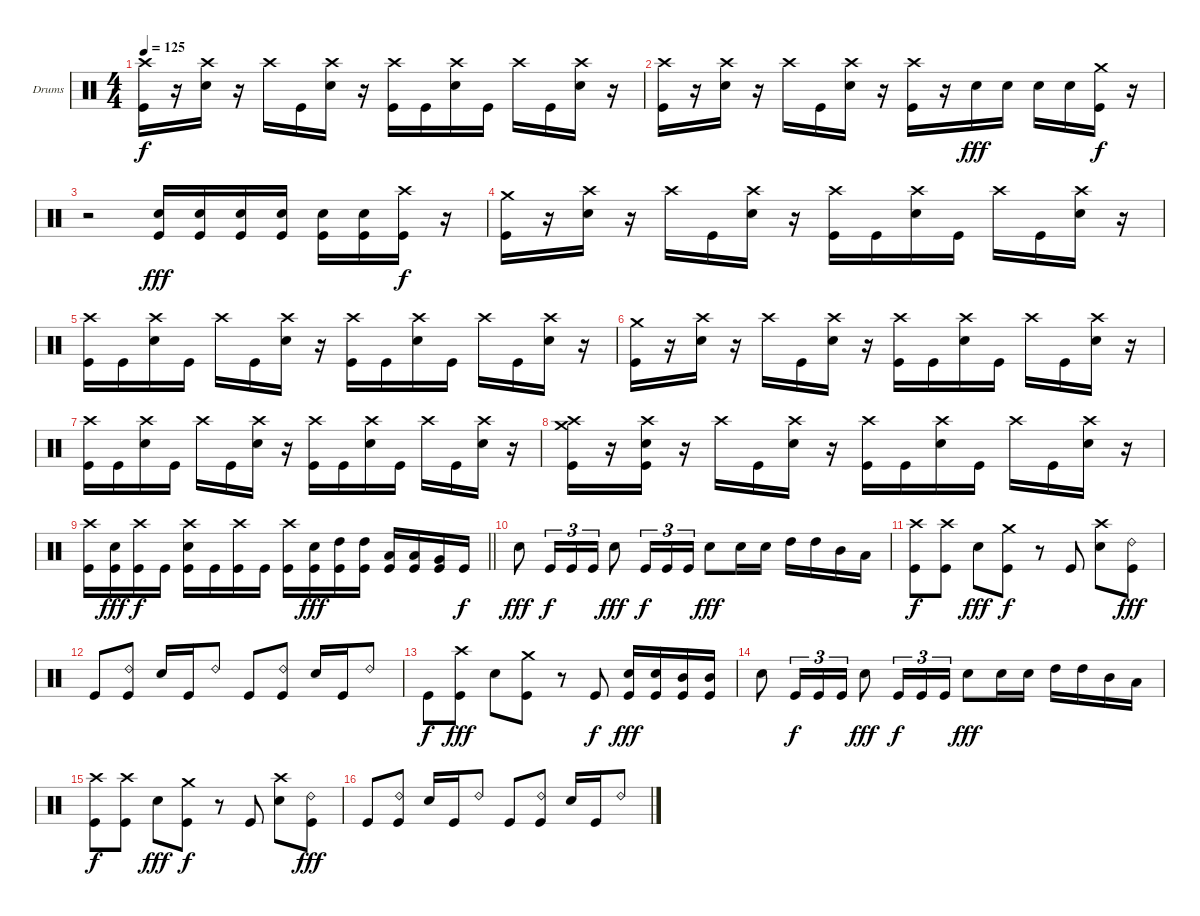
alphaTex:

\bracketExtendMode groupsimilarinstruments
\firstSystemTrackNameOrientation horizontal
\otherSystemsTrackNameOrientation horizontal
\track ("Drumkit" "Drums") {instrument percussion}
\staff {score}
\articulation defaults
\ts (4 4)
\tempo 125
\clef neutral
\ks c
("Crash high (hit)" "Kick (hit)").16{dy f} r.16 ("Crash high (hit)" "Snare (hit) 2").16 r.16 "Crash high (hit)".16 "Kick (hit)".16 ("Crash high (hit)" "Snare (hit) 2").16 r.16 ("Crash high (hit)" "Kick (hit)").16 "Kick (hit)".16 ("Crash high (hit)" "Snare (hit) 2").16 "Kick (hit)".16 "Crash high (hit)".16 "Kick (hit)".16 ("Crash high (hit)" "Snare (hit) 2").16 r.16 |
("Crash high (hit)" "Kick (hit)").16 r.16 ("Crash high (hit)" "Snare (hit) 2").16 r.16 "Crash high (hit)".16 "Kick (hit)".16 ("Crash high (hit)" "Snare (hit) 2").16 r.16 ("Crash high (hit)" "Kick (hit)").16 r.16 "Snare (hit) 2".16{dy fff} "Snare (hit) 2".16 "Snare (hit) 2".16 "Snare (hit) 2".16 ("Crash medium (hit)" "Kick (hit)").16{dy f} r.16 |
r.2 ("Snare (hit) 2" "Kick (hit)").16{dy fff} ("Snare (hit) 2" "Kick (hit)").16 ("Snare (hit) 2" "Kick (hit)").16 ("Snare (hit) 2" "Kick (hit)").16 ("Snare (hit) 2" "Kick (hit)").16 ("Snare (hit) 2" "Kick (hit)").16 ("Crash high (hit)" "Kick (hit)").16{dy f} r.16 |
("Crash medium (hit)" "Kick (hit)").16 r.16 ("Crash high (hit)" "Snare (hit) 2").16 r.16 "Crash high (hit)".16 "Kick (hit)".16 ("Crash high (hit)" "Snare (hit) 2").16 r.16 ("Crash high (hit)" "Kick (hit)").16 "Kick (hit)".16 ("Crash high (hit)" "Snare (hit) 2").16 "Kick (hit)".16 "Crash high (hit)".16 "Kick (hit)".16 ("Crash high (hit)" "Snare (hit) 2").16 r.16 |
("Crash high (hit)" "Kick (hit)").16 "Kick (hit)".16 ("Crash high (hit)" "Snare (hit) 2").16 "Kick (hit)".16 "Crash high (hit)".16 "Kick (hit)".16 ("Crash high (hit)" "Snare (hit) 2").16 r.16 ("Crash high (hit)" "Kick (hit)").16 "Kick (hit)".16 ("Crash high (hit)" "Snare (hit) 2").16 "Kick (hit)".16 "Crash high (hit)".16 "Kick (hit)".16 ("Crash high (hit)" "Snare (hit) 2").16 r.16 |
("Crash medium (hit)" "Kick (hit)").16 r.16 ("Crash high (hit)" "Snare (hit) 2").16 r.16 "Crash high (hit)".16 "Kick (hit)".16 ("Crash high (hit)" "Snare (hit) 2").16 r.16 ("Crash high (hit)" "Kick (hit)").16 "Kick (hit)".16 ("Crash high (hit)" "Snare (hit) 2").16 "Kick (hit)".16 "Crash high (hit)".16 "Kick (hit)".16 ("Crash high (hit)" "Snare (hit) 2").16 r.16 |
("Crash high (hit)" "Kick (hit)").16 "Kick (hit)".16 ("Crash high (hit)" "Snare (hit) 2").16 "Kick (hit)".16 "Crash high (hit)".16 "Kick (hit)".16 ("Crash high (hit)" "Snare (hit) 2").16 r.16 ("Crash high (hit)" "Kick (hit)").16 "Kick (hit)".16 ("Crash high (hit)" "Snare (hit) 2").16 "Kick (hit)".16 "Crash high (hit)".16 "Kick (hit)".16 ("Crash high (hit)" "Snare (hit) 2").16 r.16 |
("Crash medium (hit)" "Crash high (hit)" "Kick (hit)").16 r.16 ("Crash high (hit)" "Snare (hit) 2" "Kick (hit)").16 r.16 "Crash high (hit)".16 "Kick (hit)".16 ("Crash high (hit)" "Snare (hit) 2").16 r.16 ("Crash high (hit)" "Kick (hit)").16 "Kick (hit)".16 ("Crash high (hit)" "Snare (hit) 2").16 "Kick (hit)".16 "Crash high (hit)".16 "Kick (hit)".16 ("Crash high (hit)" "Snare (hit) 2").16 r.16 |
\barLineRight lightlight
("Crash high (hit)" "Kick (hit)").16 ("Snare (hit) 2" "Kick (hit)").16{dy fff} ("Crash high (hit)" "Kick (hit)").16{dy f} "Kick (hit)".16 ("Crash high (hit)" "Snare (hit) 2" "Kick (hit)").16 "Kick (hit)".16 ("Crash high (hit)" "Kick (hit)").16 "Kick (hit)".16 ("Crash high (hit)" "Kick (hit)").16 ("Snare (hit) 2" "Kick (hit)").16{dy fff} ("High Tom (hit)" "Kick (hit)").16 ("High Tom (hit)" "Kick (hit)").16 ("Low Tom (hit)" "Kick (hit)").16 ("Low Tom (hit)" "Kick (hit)").16 ("Very Low Tom (hit)" "Kick (hit)").16 "Kick (hit)".16{dy f} |
"Snare (hit) 2".8{dy fff} "Kick (hit)".16{tu (3 2) dy f} "Kick (hit)".16{tu (3 2)} "Kick (hit)".16{tu (3 2)} "Snare (hit) 2".8{dy fff} "Kick (hit)".16{tu (3 2) dy f} "Kick (hit)".16{tu (3 2)} "Kick (hit)".16{tu (3 2)} "Snare (hit) 2".8{dy fff} "Snare (hit) 2".16 "Snare (hit) 2".16 "High Tom (hit)".16 "High Tom (hit)".16 "Mid Tom (hit)".16 "Low Tom (hit)".16 |
("Crash high (hit)" "Kick (hit)").8{dy f} ("Crash high (hit)" "Kick (hit)").8 "Snare (hit) 2".8{dy fff} ("Crash medium (hit)" "Kick (hit)").8{dy f} r.8 "Kick (hit)".8 ("Crash high (hit)" "Snare (hit) 2").8 ("Ride (bell) 2" "Kick (hit)").8{dy fff} |
"Kick (hit)".8 ("Ride (bell) 2" "Kick (hit)").8 "Snare (hit) 2".16 "Kick (hit)".16 "Ride (bell) 2".8 "Kick (hit)".8 ("Ride (bell) 2" "Kick (hit)").8 "Snare (hit) 2".16 "Kick (hit)".16 "Ride (bell) 2".8 |
"Kick (hit)".8{dy f} ("Crash high (hit)" "Kick (hit)").8{dy fff} "Snare (hit) 2".8 ("Crash medium (hit)" "Kick (hit)").8 r.8 "Kick (hit)".8{dy f} ("Snare (hit) 2" "Kick (hit)").16{dy fff} ("Snare (hit) 2" "Kick (hit)").16 ("Mid Tom (hit)" "Kick (hit)").16 ("Mid Tom (hit)" "Kick (hit)").16 |
"Snare (hit) 2".8 "Kick (hit)".16{tu (3 2) dy f} "Kick (hit)".16{tu (3 2)} "Kick (hit)".16{tu (3 2)} "Snare (hit) 2".8{dy fff} "Kick (hit)".16{tu (3 2) dy f} "Kick (hit)".16{tu (3 2)} "Kick (hit)".16{tu (3 2)} "Snare (hit) 2".8{dy fff} "Snare (hit) 2".16 "Snare (hit) 2".16 "High Tom (hit)".16 "High Tom (hit)".16 "Mid Tom (hit)".16 "Low Tom (hit)".16 |
("Crash high (hit)" "Kick (hit)").8{dy f} ("Crash high (hit)" "Kick (hit)").8 "Snare (hit) 2".8{dy fff} ("Crash medium (hit)" "Kick (hit)").8{dy f} r.8 "Kick (hit)".8 ("Crash high (hit)" "Snare (hit) 2").8 ("Ride (bell) 2" "Kick (hit)").8{dy fff} |
"Kick (hit)".8 ("Ride (bell) 2" "Kick (hit)").8 "Snare (hit) 2".16 "Kick (hit)".16 "Ride (bell) 2".8 "Kick (hit)".8 ("Ride (bell) 2" "Kick (hit)").8 "Snare (hit) 2".16 "Kick (hit)".16 "Ride (bell) 2".8
